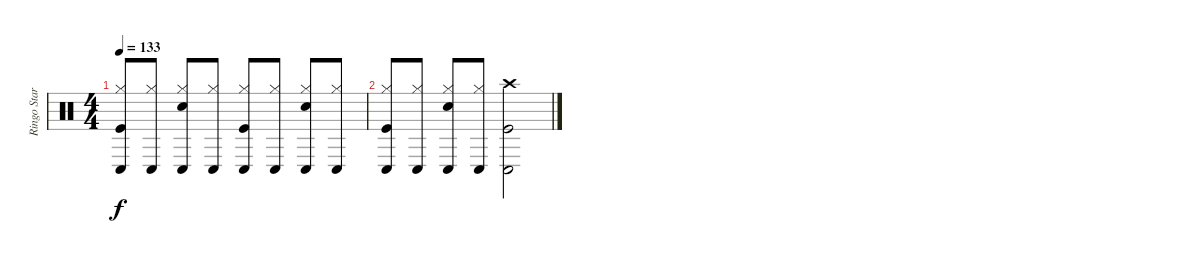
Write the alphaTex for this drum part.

\track ("Ringo Starr - Drums" "Ringo Star") {instrument percussion}
\staff {score}
\articulation defaults
\ts (4 4)
\tempo 133
\clef neutral
\ks c
("Kick (hit)" "Hi-Hat (closed)" "Conga low (hit)").8{dy f} ("Conga low (hit)" "Hi-Hat (closed)").8 ("Conga low (hit)" "Hi-Hat (closed)" "Snare (hit) 2").8 ("Conga low (hit)" "Hi-Hat (closed)").8 ("Conga low (hit)" "Hi-Hat (closed)" "Kick (hit)").8 ("Conga low (hit)" "Hi-Hat (closed)").8 ("Conga low (hit)" "Hi-Hat (closed)" "Snare (hit) 2").8 ("Conga low (hit)" "Hi-Hat (closed)").8 |
("Kick (hit)" "Hi-Hat (closed)" "Conga low (hit)").8 ("Conga low (hit)" "Hi-Hat (closed)").8 ("Conga low (hit)" "Hi-Hat (closed)" "Snare (hit) 2").8 ("Conga low (hit)" "Hi-Hat (closed)").8 ("Conga low (hit)" "Crash high (hit)" "Kick (hit)").2
